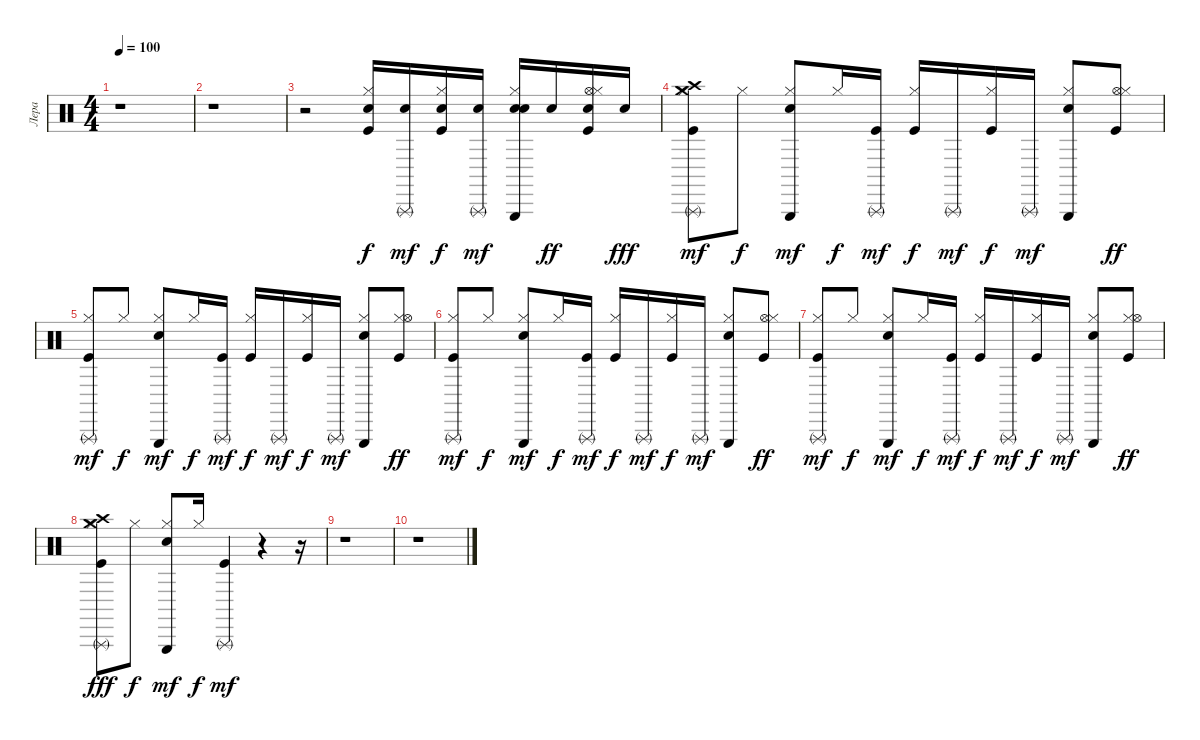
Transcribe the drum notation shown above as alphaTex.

\track ("Лера" "Лера") {instrument percussion}
\staff {score}
\articulation defaults
\ts (4 4)
\tempo 100
\clef neutral
\ks c
r.1{dy f} |
r.1 |
r.2 ("Kick (hit)" "Snare (hit) 2" "Hi-Hat (closed)").16 ("Triangle (rnute)" "Snare (hit) 2").16{dy mf} ("Snare (hit) 2" "Hi-Hat (closed)" "Kick (hit)").16{dy f} ("Triangle (rnute)" "Snare (hit) 2").16{dy mf} ("Snare (hit) 2" "Electric Snare (hit)" "Hi-Hat (closed)" "Triangle (hit)").16 "Snare (hit) 2".16{dy ff} ("Kick (hit)" "Hi-Hat (open)" "Hi-Hat (closed)" "Snare (hit) 2").16 "Snare (hit) 2".16{dy fff} |
("Hi-Hat (closed)" "Crash medium (hit)" "Crash high (hit)" "Kick (hit)" "Triangle (rnute)").8{dy mf} "Hi-Hat (closed)".8{dy f} ("Hi-Hat (closed)" "Triangle (hit)" "Electric Snare (hit)").8{dy mf} "Hi-Hat (closed)".16{dy f} ("Kick (hit)" "Triangle (rnute)").16{dy mf} ("Kick (hit)" "Hi-Hat (closed)").16{dy f} "Triangle (rnute)".16{dy mf} ("Kick (hit)" "Hi-Hat (closed)").16{dy f} "Triangle (rnute)".16{dy mf} ("Hi-Hat (closed)" "Electric Snare (hit)" "Triangle (hit)").8 ("Hi-Hat (open)" "Hi-Hat (closed)" "Kick (hit)").8{dy ff} |
("Kick (hit)" "Hi-Hat (closed)" "Triangle (rnute)").8{dy mf} "Hi-Hat (closed)".8{dy f} ("Hi-Hat (closed)" "Triangle (hit)" "Electric Snare (hit)").8{dy mf} "Hi-Hat (closed)".16{dy f} ("Triangle (rnute)" "Kick (hit)").16{dy mf} ("Hi-Hat (closed)" "Kick (hit)").16{dy f} "Triangle (rnute)".16{dy mf} ("Hi-Hat (closed)" "Kick (hit)").16{dy f} "Triangle (rnute)".16{dy mf} ("Hi-Hat (closed)" "Electric Snare (hit)" "Triangle (hit)").8 ("Kick (hit)" "Hi-Hat (closed)" "Hi-Hat (open)").8{dy ff} |
("Hi-Hat (closed)" "Kick (hit)" "Triangle (rnute)").8{dy mf} "Hi-Hat (closed)".8{dy f} ("Electric Snare (hit)" "Triangle (hit)" "Hi-Hat (closed)").8{dy mf} "Hi-Hat (closed)".16{dy f} ("Triangle (rnute)" "Kick (hit)").16{dy mf} ("Hi-Hat (closed)" "Kick (hit)").16{dy f} "Triangle (rnute)".16{dy mf} ("Hi-Hat (closed)" "Kick (hit)").16{dy f} "Triangle (rnute)".16{dy mf} ("Hi-Hat (closed)" "Electric Snare (hit)" "Triangle (hit)").8 ("Kick (hit)" "Hi-Hat (open)" "Hi-Hat (closed)").8{dy ff} |
("Kick (hit)" "Triangle (rnute)" "Hi-Hat (closed)").8{dy mf} "Hi-Hat (closed)".8{dy f} ("Electric Snare (hit)" "Hi-Hat (closed)" "Triangle (hit)").8{dy mf} "Hi-Hat (closed)".16{dy f} ("Kick (hit)" "Triangle (rnute)").16{dy mf} ("Kick (hit)" "Hi-Hat (closed)").16{dy f} "Triangle (rnute)".16{dy mf} ("Kick (hit)" "Hi-Hat (closed)").16{dy f} "Triangle (rnute)".16{dy mf} ("Hi-Hat (closed)" "Electric Snare (hit)" "Triangle (hit)").8 ("Hi-Hat (closed)" "Kick (hit)" "Hi-Hat (open)").8{dy ff} |
("Triangle (rnute)" "Crash high (hit)" "Kick (hit)" "Crash medium (hit)" "Hi-Hat (closed)").8{dy fff} "Hi-Hat (closed)".8{dy f} ("Triangle (hit)" "Electric Snare (hit)" "Hi-Hat (closed)").8{dy mf} "Hi-Hat (closed)".16{dy f} ("Kick (hit)" "Triangle (rnute)").4{dy mf} r.4 r.16 |
r.1 |
r.1
